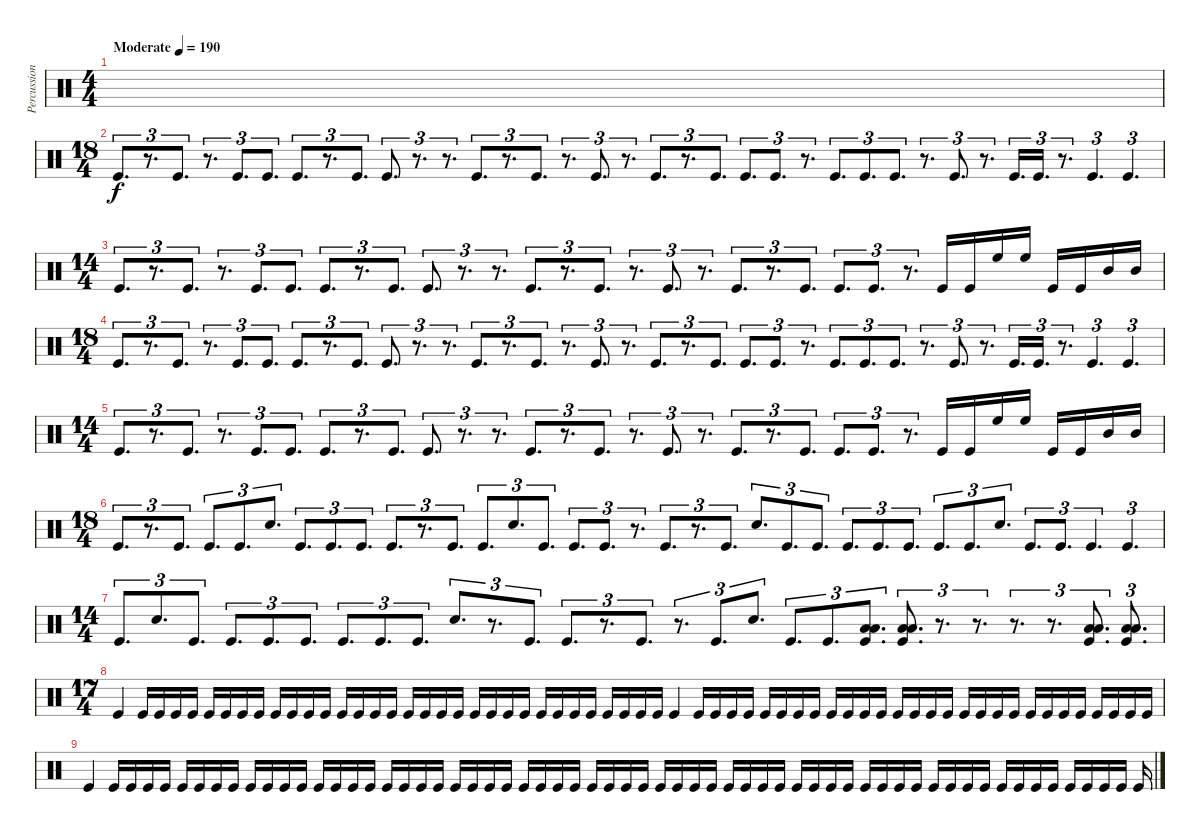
\track ("Percussion" "Percussion") {instrument percussion}
\staff {score}
\articulation defaults
\ts (4 4)
\tempo (190 "Moderate")
\clef neutral
\ks c
|
\ts (18 4)
"Kick (hit)".8{d tu (3 2)} r.8{d tu (3 2)} "Kick (hit)".8{d tu (3 2)} r.8{d tu (3 2)} "Kick (hit)".8{d tu (3 2)} "Kick (hit)".8{d tu (3 2)} "Kick (hit)".8{d tu (3 2)} r.8{d tu (3 2)} "Kick (hit)".8{d tu (3 2)} "Kick (hit)".8{d tu (3 2)} r.8{d tu (3 2)} r.8{d tu (3 2)} "Kick (hit)".8{d tu (3 2)} r.8{d tu (3 2)} "Kick (hit)".8{d tu (3 2)} r.8{d tu (3 2)} "Kick (hit)".8{d tu (3 2)} r.8{d tu (3 2)} "Kick (hit)".8{d tu (3 2)} r.8{d tu (3 2)} "Kick (hit)".8{d tu (3 2)} "Kick (hit)".8{d tu (3 2)} "Kick (hit)".8{d tu (3 2)} r.8{d tu (3 2)} "Kick (hit)".8{d tu (3 2)} "Kick (hit)".8{d tu (3 2)} "Kick (hit)".8{d tu (3 2)} r.8{d tu (3 2)} "Kick (hit)".8{d tu (3 2)} r.8{d tu (3 2)} "Kick (hit)".16{d tu (3 2)} "Kick (hit)".16{d tu (3 2)} r.8{d tu (3 2)} "Kick (hit)".4{d tu (3 2)} "Kick (hit)".4{d tu (3 2)} |
\ts (14 4)
"Kick (hit)".8{d tu (3 2)} r.8{d tu (3 2)} "Kick (hit)".8{d tu (3 2)} r.8{d tu (3 2)} "Kick (hit)".8{d tu (3 2)} "Kick (hit)".8{d tu (3 2)} "Kick (hit)".8{d tu (3 2)} r.8{d tu (3 2)} "Kick (hit)".8{d tu (3 2)} "Kick (hit)".8{d tu (3 2)} r.8{d tu (3 2)} r.8{d tu (3 2)} "Kick (hit)".8{d tu (3 2)} r.8{d tu (3 2)} "Kick (hit)".8{d tu (3 2)} r.8{d tu (3 2)} "Kick (hit)".8{d tu (3 2)} r.8{d tu (3 2)} "Kick (hit)".8{d tu (3 2)} r.8{d tu (3 2)} "Kick (hit)".8{d tu (3 2)} "Kick (hit)".8{d tu (3 2)} "Kick (hit)".8{d tu (3 2)} r.8{d tu (3 2)} "Kick (hit)".16 "Kick (hit)".16 "High Floor Tom (hit)".16 "High Floor Tom (hit)".16 "Kick (hit)".16 "Kick (hit)".16 "Mid Tom (hit)".16 "Mid Tom (hit)".16 |
\ts (18 4)
"Kick (hit)".8{d tu (3 2)} r.8{d tu (3 2)} "Kick (hit)".8{d tu (3 2)} r.8{d tu (3 2)} "Kick (hit)".8{d tu (3 2)} "Kick (hit)".8{d tu (3 2)} "Kick (hit)".8{d tu (3 2)} r.8{d tu (3 2)} "Kick (hit)".8{d tu (3 2)} "Kick (hit)".8{d tu (3 2)} r.8{d tu (3 2)} r.8{d tu (3 2)} "Kick (hit)".8{d tu (3 2)} r.8{d tu (3 2)} "Kick (hit)".8{d tu (3 2)} r.8{d tu (3 2)} "Kick (hit)".8{d tu (3 2)} r.8{d tu (3 2)} "Kick (hit)".8{d tu (3 2)} r.8{d tu (3 2)} "Kick (hit)".8{d tu (3 2)} "Kick (hit)".8{d tu (3 2)} "Kick (hit)".8{d tu (3 2)} r.8{d tu (3 2)} "Kick (hit)".8{d tu (3 2)} "Kick (hit)".8{d tu (3 2)} "Kick (hit)".8{d tu (3 2)} r.8{d tu (3 2)} "Kick (hit)".8{d tu (3 2)} r.8{d tu (3 2)} "Kick (hit)".16{d tu (3 2)} "Kick (hit)".16{d tu (3 2)} r.8{d tu (3 2)} "Kick (hit)".4{d tu (3 2)} "Kick (hit)".4{d tu (3 2)} |
\ts (14 4)
"Kick (hit)".8{d tu (3 2)} r.8{d tu (3 2)} "Kick (hit)".8{d tu (3 2)} r.8{d tu (3 2)} "Kick (hit)".8{d tu (3 2)} "Kick (hit)".8{d tu (3 2)} "Kick (hit)".8{d tu (3 2)} r.8{d tu (3 2)} "Kick (hit)".8{d tu (3 2)} "Kick (hit)".8{d tu (3 2)} r.8{d tu (3 2)} r.8{d tu (3 2)} "Kick (hit)".8{d tu (3 2)} r.8{d tu (3 2)} "Kick (hit)".8{d tu (3 2)} r.8{d tu (3 2)} "Kick (hit)".8{d tu (3 2)} r.8{d tu (3 2)} "Kick (hit)".8{d tu (3 2)} r.8{d tu (3 2)} "Kick (hit)".8{d tu (3 2)} "Kick (hit)".8{d tu (3 2)} "Kick (hit)".8{d tu (3 2)} r.8{d tu (3 2)} "Kick (hit)".16 "Kick (hit)".16 "High Floor Tom (hit)".16 "High Floor Tom (hit)".16 "Kick (hit)".16 "Kick (hit)".16 "Mid Tom (hit)".16 "Mid Tom (hit)".16 |
\ts (18 4)
"Kick (hit)".8{d tu (3 2)} r.8{d tu (3 2)} "Kick (hit)".8{d tu (3 2)} "Kick (hit)".8{d tu (3 2)} "Kick (hit)".8{d tu (3 2)} "Electric Snare (hit)".8{d tu (3 2)} "Kick (hit)".8{d tu (3 2)} "Kick (hit)".8{d tu (3 2)} "Kick (hit)".8{d tu (3 2)} "Kick (hit)".8{d tu (3 2)} r.8{d tu (3 2)} "Kick (hit)".8{d tu (3 2)} "Kick (hit)".8{d tu (3 2)} "Electric Snare (hit)".8{d tu (3 2)} "Kick (hit)".8{d tu (3 2)} "Kick (hit)".8{d tu (3 2)} "Kick (hit)".8{d tu (3 2)} r.8{d tu (3 2)} "Kick (hit)".8{d tu (3 2)} r.8{d tu (3 2)} "Kick (hit)".8{d tu (3 2)} "Electric Snare (hit)".8{d tu (3 2)} "Kick (hit)".8{d tu (3 2)} "Kick (hit)".8{d tu (3 2)} "Kick (hit)".8{d tu (3 2)} "Kick (hit)".8{d tu (3 2)} "Kick (hit)".8{d tu (3 2)} "Kick (hit)".8{d tu (3 2)} "Kick (hit)".8{d tu (3 2)} "Electric Snare (hit)".8{d tu (3 2)} "Kick (hit)".8{d tu (3 2)} "Kick (hit)".8{d tu (3 2)} "Kick (hit)".4{d tu (3 2)} "Kick (hit)".4{d tu (3 2)} |
\ts (14 4)
"Kick (hit)".8{d tu (3 2)} "Electric Snare (hit)".8{d tu (3 2)} "Kick (hit)".8{d tu (3 2)} "Kick (hit)".8{d tu (3 2)} "Kick (hit)".8{d tu (3 2)} "Kick (hit)".8{d tu (3 2)} "Kick (hit)".8{d tu (3 2)} "Kick (hit)".8{d tu (3 2)} "Kick (hit)".8{d tu (3 2)} "Electric Snare (hit)".8{d tu (3 2)} r.8{d tu (3 2)} "Kick (hit)".8{d tu (3 2)} "Kick (hit)".8{d tu (3 2)} r.8{d tu (3 2)} "Kick (hit)".8{d tu (3 2)} r.8{d tu (3 2)} "Kick (hit)".8{d tu (3 2)} "Electric Snare (hit)".8{d tu (3 2)} "Kick (hit)".8{d tu (3 2)} "Kick (hit)".8{d tu (3 2)} ("Low Tom (hit)" "Low Floor Tom (hit)" "Kick (hit)").8{d tu (3 2)} ("Low Tom (hit)" "Low Floor Tom (hit)" "Kick (hit)").8{d tu (3 2)} r.8{d tu (3 2)} r.8{d tu (3 2)} r.8{d tu (3 2)} r.8{d tu (3 2)} ("Low Tom (hit)" "Low Floor Tom (hit)" "Kick (hit)").8{d tu (3 2)} ("Low Tom (hit)" "Low Floor Tom (hit)" "Kick (hit)").8{d tu (3 2)} |
\ts (17 4)
"Kick (hit)".4 "Kick (hit)".16 "Kick (hit)".16 "Kick (hit)".16 "Kick (hit)".16 "Kick (hit)".16 "Kick (hit)".16 "Kick (hit)".16 "Kick (hit)".16 "Kick (hit)".16 "Kick (hit)".16 "Kick (hit)".16 "Kick (hit)".16 "Kick (hit)".16 "Kick (hit)".16 "Kick (hit)".16 "Kick (hit)".16 "Kick (hit)".16 "Kick (hit)".16 "Kick (hit)".16 "Kick (hit)".16 "Kick (hit)".16 "Kick (hit)".16 "Kick (hit)".16 "Kick (hit)".16 "Kick (hit)".16 "Kick (hit)".16 "Kick (hit)".16 "Kick (hit)".16 "Kick (hit)".16 "Kick (hit)".16 "Kick (hit)".16 "Kick (hit)".16 "Kick (hit)".4 "Kick (hit)".16 "Kick (hit)".16 "Kick (hit)".16 "Kick (hit)".16 "Kick (hit)".16 "Kick (hit)".16 "Kick (hit)".16 "Kick (hit)".16 "Kick (hit)".16 "Kick (hit)".16 "Kick (hit)".16 "Kick (hit)".16 "Kick (hit)".16 "Kick (hit)".16 "Kick (hit)".16 "Kick (hit)".16 "Kick (hit)".16 "Kick (hit)".16 "Kick (hit)".16 "Kick (hit)".16 "Kick (hit)".16 "Kick (hit)".16 "Kick (hit)".16 "Kick (hit)".16 "Kick (hit)".16 "Kick (hit)".16 "Kick (hit)".16 "Kick (hit)".16 |
"Kick (hit)".4 "Kick (hit)".16 "Kick (hit)".16 "Kick (hit)".16 "Kick (hit)".16 "Kick (hit)".16 "Kick (hit)".16 "Kick (hit)".16 "Kick (hit)".16 "Kick (hit)".16 "Kick (hit)".16 "Kick (hit)".16 "Kick (hit)".16 "Kick (hit)".16 "Kick (hit)".16 "Kick (hit)".16 "Kick (hit)".16 "Kick (hit)".16 "Kick (hit)".16 "Kick (hit)".16 "Kick (hit)".16 "Kick (hit)".16 "Kick (hit)".16 "Kick (hit)".16 "Kick (hit)".16 "Kick (hit)".16 "Kick (hit)".16 "Kick (hit)".16 "Kick (hit)".16 "Kick (hit)".16 "Kick (hit)".16 "Kick (hit)".16 "Kick (hit)".16 "Kick (hit)".16 "Kick (hit)".16 "Kick (hit)".16 "Kick (hit)".16 "Kick (hit)".16 "Kick (hit)".16 "Kick (hit)".16 "Kick (hit)".16 "Kick (hit)".16 "Kick (hit)".16 "Kick (hit)".16 "Kick (hit)".16 "Kick (hit)".16 "Kick (hit)".16 "Kick (hit)".16 "Kick (hit)".16 "Kick (hit)".16 "Kick (hit)".16 "Kick (hit)".16 "Kick (hit)".16 "Kick (hit)".16 "Kick (hit)".16 "Kick (hit)".16 "Kick (hit)".16 "Kick (hit)".16 "Kick (hit)".16 "Kick (hit)".16 "Kick (hit)".16 "Kick (hit)".16
